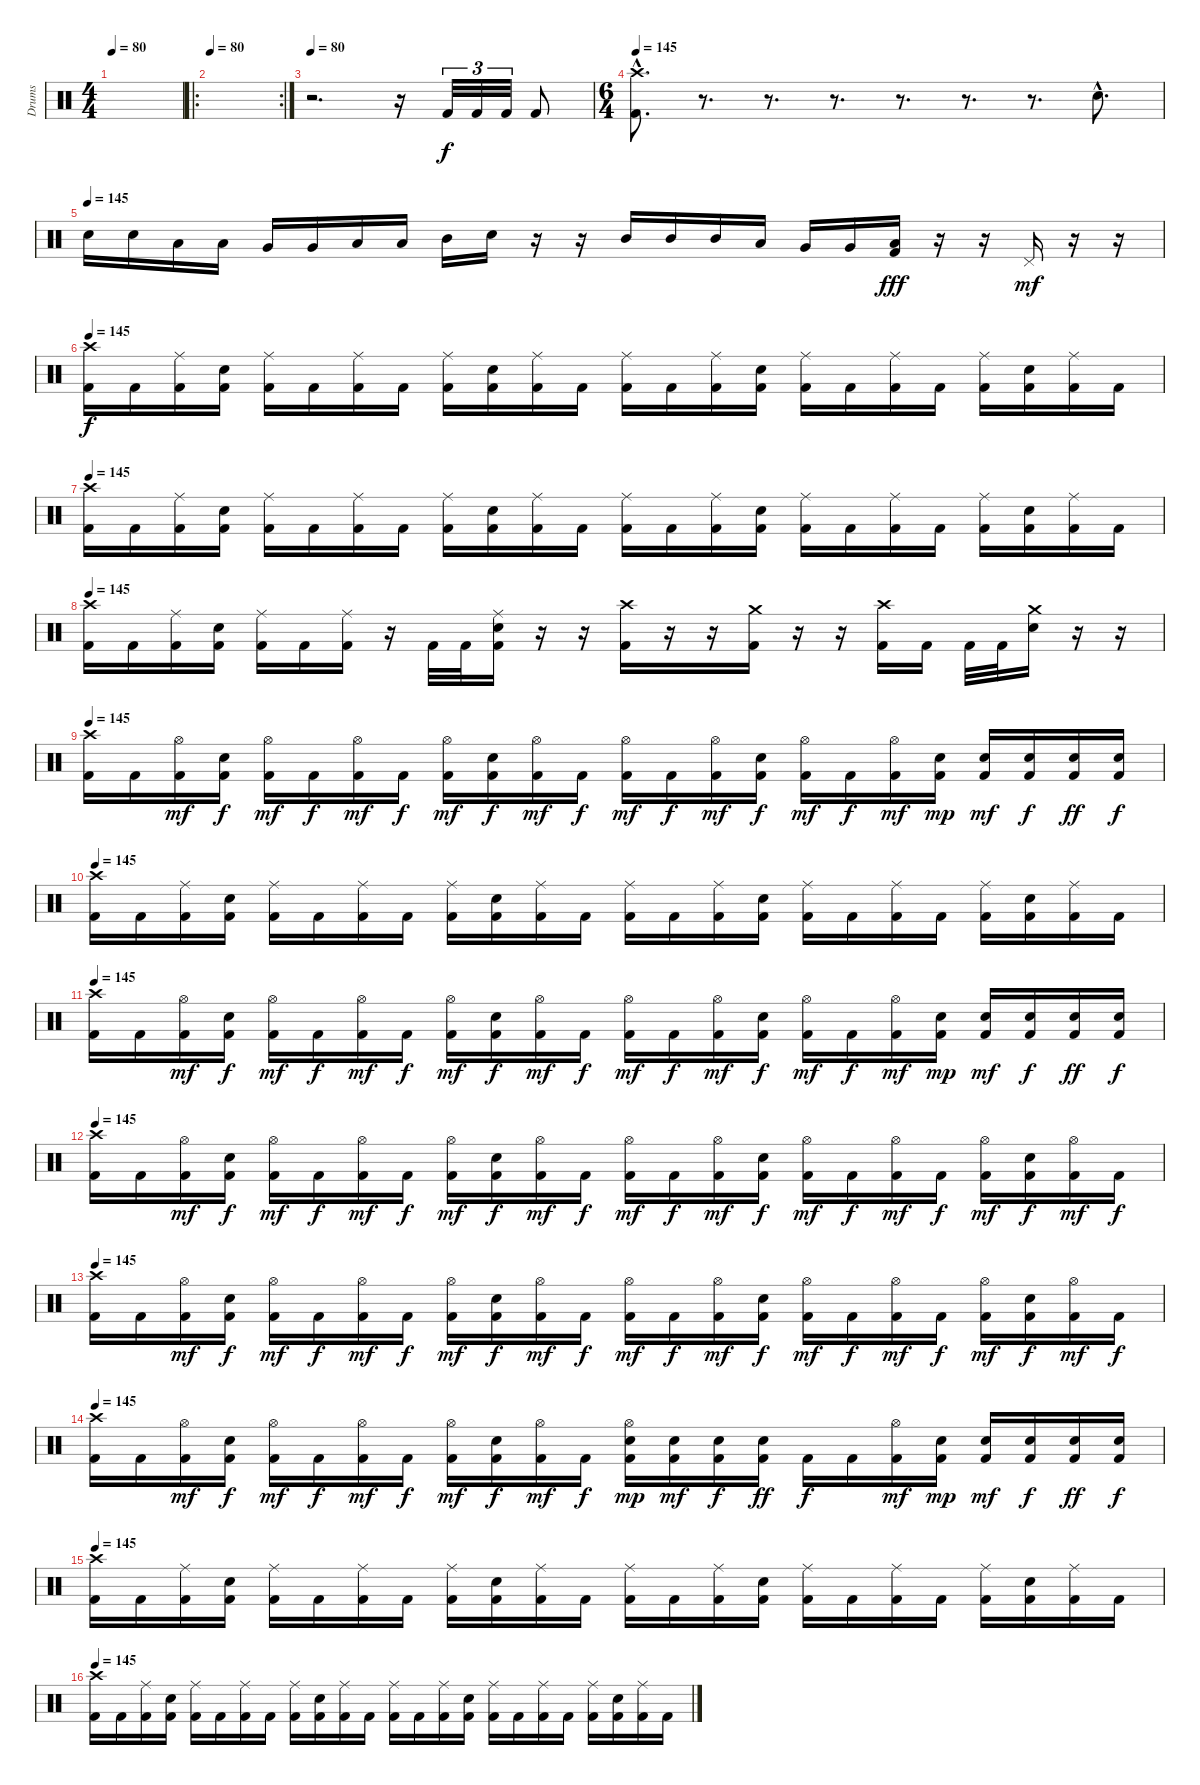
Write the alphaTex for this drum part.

\track ("Drums" "Drums") {instrument percussion}
\staff {score}
\articulation defaults
\ts (4 4)
\tempo 80
\clef neutral
\ks c
|
\ro
\rc 2
\tempo 80
|
\tempo 80
r.2{d} r.16 "Kick (hit) 2".32{tu (3 2) dy f} "Kick (hit) 2".32{tu (3 2)} "Kick (hit) 2".32{tu (3 2)} "Kick (hit) 2".8 |
\ts (6 4)
\tempo 145
("Crash high (hit)"{hac} "Kick (hit) 2"{hac}).8{d} r.8{d} r.8{d} r.8{d} r.8{d} r.8{d} r.8{d} "Electric Snare (hit)"{hac}.8{d} |
\tempo (145)
"Electric Snare (hit)".16 "Electric Snare (hit)".16 "Low Tom (hit)".16 "Low Tom (hit)".16 "Very Low Tom (hit)".16 "Very Low Tom (hit)".16 "Low Tom (hit)".16 "Low Tom (hit)".16 "Mid Tom (hit)".16 "Electric Snare (hit)".16 r.16 r.16 "Mid Tom (hit)".16 "Mid Tom (hit)".16 "Mid Tom (hit)".16 "Low Tom (hit)".16 "Very Low Tom (hit)".16 "Very Low Tom (hit)".16 ("Low Floor Tom (hit)" "Kick (hit) 2").16{dy fff} r.16 r.16 "Pedal Hi-Hat (hit)".16{dy mf} r.16 r.16 |
\tempo 145
("Crash high (hit)" "Kick (hit) 2").16{dy f} "Kick (hit) 2".16 ("Ride (middle)" "Kick (hit) 2").16 ("Electric Snare (hit)" "Kick (hit) 2").16 ("Ride (middle)" "Kick (hit) 2").16 "Kick (hit) 2".16 ("Ride (middle)" "Kick (hit) 2").16 "Kick (hit) 2".16 ("Ride (middle)" "Kick (hit) 2").16 ("Electric Snare (hit)" "Kick (hit) 2").16 ("Ride (middle)" "Kick (hit) 2").16 "Kick (hit) 2".16 ("Ride (middle)" "Kick (hit) 2").16 "Kick (hit) 2".16 ("Ride (middle)" "Kick (hit) 2").16 ("Electric Snare (hit)" "Kick (hit) 2").16 ("Ride (middle)" "Kick (hit) 2").16 "Kick (hit) 2".16 ("Ride (middle)" "Kick (hit) 2").16 "Kick (hit) 2".16 ("Ride (middle)" "Kick (hit) 2").16 ("Electric Snare (hit)" "Kick (hit) 2").16 ("Ride (middle)" "Kick (hit) 2").16 "Kick (hit) 2".16 |
\tempo 145
("Crash high (hit)" "Kick (hit) 2").16 "Kick (hit) 2".16 ("Ride (middle)" "Kick (hit) 2").16 ("Electric Snare (hit)" "Kick (hit) 2").16 ("Ride (middle)" "Kick (hit) 2").16 "Kick (hit) 2".16 ("Ride (middle)" "Kick (hit) 2").16 "Kick (hit) 2".16 ("Ride (middle)" "Kick (hit) 2").16 ("Electric Snare (hit)" "Kick (hit) 2").16 ("Ride (middle)" "Kick (hit) 2").16 "Kick (hit) 2".16 ("Ride (middle)" "Kick (hit) 2").16 "Kick (hit) 2".16 ("Ride (middle)" "Kick (hit) 2").16 ("Electric Snare (hit)" "Kick (hit) 2").16 ("Ride (middle)" "Kick (hit) 2").16 "Kick (hit) 2".16 ("Ride (middle)" "Kick (hit) 2").16 "Kick (hit) 2".16 ("Ride (middle)" "Kick (hit) 2").16 ("Electric Snare (hit)" "Kick (hit) 2").16 ("Ride (middle)" "Kick (hit) 2").16 "Kick (hit) 2".16 |
\tempo 145
("Crash high (hit)" "Kick (hit) 2").16 "Kick (hit) 2".16 ("Ride (middle)" "Kick (hit) 2").16 ("Electric Snare (hit)" "Kick (hit) 2").16 ("Ride (middle)" "Kick (hit) 2").16 "Kick (hit) 2".16 ("Ride (middle)" "Kick (hit) 2").16 r.16 "Kick (hit) 2".32 "Kick (hit) 2".32 ("Ride (middle)" "Electric Snare (hit)" "Kick (hit) 2").16 r.16 r.16 ("Crash high (hit)" "Kick (hit) 2").16 r.16 r.16 ("Crash medium (hit)" "Kick (hit) 2").16 r.16 r.16 ("Crash high (hit)" "Kick (hit) 2").16 "Kick (hit) 2".16 "Kick (hit) 2".32 "Kick (hit) 2".32 ("Crash medium (hit)" "Electric Snare (hit)").16 r.16 r.16 |
\tempo 145
("Crash high (hit)" "Kick (hit) 2").16 "Kick (hit) 2".16 ("Hi-Hat (open)" "Kick (hit) 2").16{dy mf} ("Electric Snare (hit)" "Kick (hit) 2").16{dy f} ("Hi-Hat (open)" "Kick (hit) 2").16{dy mf} "Kick (hit) 2".16{dy f} ("Hi-Hat (open)" "Kick (hit) 2").16{dy mf} "Kick (hit) 2".16{dy f} ("Hi-Hat (open)" "Kick (hit) 2").16{dy mf} ("Electric Snare (hit)" "Kick (hit) 2").16{dy f} ("Hi-Hat (open)" "Kick (hit) 2").16{dy mf} "Kick (hit) 2".16{dy f} ("Hi-Hat (open)" "Kick (hit) 2").16{dy mf} "Kick (hit) 2".16{dy f} ("Hi-Hat (open)" "Kick (hit) 2").16{dy mf} ("Electric Snare (hit)" "Kick (hit) 2").16{dy f} ("Hi-Hat (open)" "Kick (hit) 2").16{dy mf} "Kick (hit) 2".16{dy f} ("Hi-Hat (open)" "Kick (hit) 2").16{dy mf} ("Electric Snare (hit)" "Kick (hit) 2").16{dy mp} ("Electric Snare (hit)" "Kick (hit) 2").16{dy mf} ("Electric Snare (hit)" "Kick (hit) 2").16{dy f} ("Electric Snare (hit)" "Kick (hit) 2").16{dy ff} ("Electric Snare (hit)" "Kick (hit) 2").16{dy f} |
\tempo 145
("Crash high (hit)" "Kick (hit) 2").16 "Kick (hit) 2".16 ("Ride (middle)" "Kick (hit) 2").16 ("Electric Snare (hit)" "Kick (hit) 2").16 ("Ride (middle)" "Kick (hit) 2").16 "Kick (hit) 2".16 ("Ride (middle)" "Kick (hit) 2").16 "Kick (hit) 2".16 ("Ride (middle)" "Kick (hit) 2").16 ("Electric Snare (hit)" "Kick (hit) 2").16 ("Ride (middle)" "Kick (hit) 2").16 "Kick (hit) 2".16 ("Ride (middle)" "Kick (hit) 2").16 "Kick (hit) 2".16 ("Ride (middle)" "Kick (hit) 2").16 ("Electric Snare (hit)" "Kick (hit) 2").16 ("Ride (middle)" "Kick (hit) 2").16 "Kick (hit) 2".16 ("Ride (middle)" "Kick (hit) 2").16 "Kick (hit) 2".16 ("Ride (middle)" "Kick (hit) 2").16 ("Electric Snare (hit)" "Kick (hit) 2").16 ("Ride (middle)" "Kick (hit) 2").16 "Kick (hit) 2".16 |
\tempo 145
("Crash high (hit)" "Kick (hit) 2").16 "Kick (hit) 2".16 ("Hi-Hat (open)" "Kick (hit) 2").16{dy mf} ("Electric Snare (hit)" "Kick (hit) 2").16{dy f} ("Hi-Hat (open)" "Kick (hit) 2").16{dy mf} "Kick (hit) 2".16{dy f} ("Hi-Hat (open)" "Kick (hit) 2").16{dy mf} "Kick (hit) 2".16{dy f} ("Hi-Hat (open)" "Kick (hit) 2").16{dy mf} ("Electric Snare (hit)" "Kick (hit) 2").16{dy f} ("Hi-Hat (open)" "Kick (hit) 2").16{dy mf} "Kick (hit) 2".16{dy f} ("Hi-Hat (open)" "Kick (hit) 2").16{dy mf} "Kick (hit) 2".16{dy f} ("Hi-Hat (open)" "Kick (hit) 2").16{dy mf} ("Electric Snare (hit)" "Kick (hit) 2").16{dy f} ("Hi-Hat (open)" "Kick (hit) 2").16{dy mf} "Kick (hit) 2".16{dy f} ("Hi-Hat (open)" "Kick (hit) 2").16{dy mf} ("Electric Snare (hit)" "Kick (hit) 2").16{dy mp} ("Electric Snare (hit)" "Kick (hit) 2").16{dy mf} ("Electric Snare (hit)" "Kick (hit) 2").16{dy f} ("Electric Snare (hit)" "Kick (hit) 2").16{dy ff} ("Electric Snare (hit)" "Kick (hit) 2").16{dy f} |
\tempo 145
("Crash high (hit)" "Kick (hit) 2").16 "Kick (hit) 2".16 ("Hi-Hat (open)" "Kick (hit) 2").16{dy mf} ("Electric Snare (hit)" "Kick (hit) 2").16{dy f} ("Hi-Hat (open)" "Kick (hit) 2").16{dy mf} "Kick (hit) 2".16{dy f} ("Hi-Hat (open)" "Kick (hit) 2").16{dy mf} "Kick (hit) 2".16{dy f} ("Hi-Hat (open)" "Kick (hit) 2").16{dy mf} ("Electric Snare (hit)" "Kick (hit) 2").16{dy f} ("Hi-Hat (open)" "Kick (hit) 2").16{dy mf} "Kick (hit) 2".16{dy f} ("Hi-Hat (open)" "Kick (hit) 2").16{dy mf} "Kick (hit) 2".16{dy f} ("Hi-Hat (open)" "Kick (hit) 2").16{dy mf} ("Electric Snare (hit)" "Kick (hit) 2").16{dy f} ("Hi-Hat (open)" "Kick (hit) 2").16{dy mf} "Kick (hit) 2".16{dy f} ("Hi-Hat (open)" "Kick (hit) 2").16{dy mf} "Kick (hit) 2".16{dy f} ("Hi-Hat (open)" "Kick (hit) 2").16{dy mf} ("Electric Snare (hit)" "Kick (hit) 2").16{dy f} ("Hi-Hat (open)" "Kick (hit) 2").16{dy mf} "Kick (hit) 2".16{dy f} |
\tempo 145
("Crash high (hit)" "Kick (hit) 2").16 "Kick (hit) 2".16 ("Hi-Hat (open)" "Kick (hit) 2").16{dy mf} ("Electric Snare (hit)" "Kick (hit) 2").16{dy f} ("Hi-Hat (open)" "Kick (hit) 2").16{dy mf} "Kick (hit) 2".16{dy f} ("Hi-Hat (open)" "Kick (hit) 2").16{dy mf} "Kick (hit) 2".16{dy f} ("Hi-Hat (open)" "Kick (hit) 2").16{dy mf} ("Electric Snare (hit)" "Kick (hit) 2").16{dy f} ("Hi-Hat (open)" "Kick (hit) 2").16{dy mf} "Kick (hit) 2".16{dy f} ("Hi-Hat (open)" "Kick (hit) 2").16{dy mf} "Kick (hit) 2".16{dy f} ("Hi-Hat (open)" "Kick (hit) 2").16{dy mf} ("Electric Snare (hit)" "Kick (hit) 2").16{dy f} ("Hi-Hat (open)" "Kick (hit) 2").16{dy mf} "Kick (hit) 2".16{dy f} ("Hi-Hat (open)" "Kick (hit) 2").16{dy mf} "Kick (hit) 2".16{dy f} ("Hi-Hat (open)" "Kick (hit) 2").16{dy mf} ("Electric Snare (hit)" "Kick (hit) 2").16{dy f} ("Hi-Hat (open)" "Kick (hit) 2").16{dy mf} "Kick (hit) 2".16{dy f} |
\tempo 145
("Crash high (hit)" "Kick (hit) 2").16 "Kick (hit) 2".16 ("Hi-Hat (open)" "Kick (hit) 2").16{dy mf} ("Electric Snare (hit)" "Kick (hit) 2").16{dy f} ("Hi-Hat (open)" "Kick (hit) 2").16{dy mf} "Kick (hit) 2".16{dy f} ("Hi-Hat (open)" "Kick (hit) 2").16{dy mf} "Kick (hit) 2".16{dy f} ("Hi-Hat (open)" "Kick (hit) 2").16{dy mf} ("Electric Snare (hit)" "Kick (hit) 2").16{dy f} ("Hi-Hat (open)" "Kick (hit) 2").16{dy mf} "Kick (hit) 2".16{dy f} ("Hi-Hat (open)" "Electric Snare (hit)" "Kick (hit) 2").16{dy mp} ("Electric Snare (hit)" "Kick (hit) 2").16{dy mf} ("Electric Snare (hit)" "Kick (hit) 2").16{dy f} ("Electric Snare (hit)" "Kick (hit) 2").16{dy ff} "Kick (hit) 2".16{dy f} "Kick (hit) 2".16 ("Hi-Hat (open)" "Kick (hit) 2").16{dy mf} ("Electric Snare (hit)" "Kick (hit) 2").16{dy mp} ("Electric Snare (hit)" "Kick (hit) 2").16{dy mf} ("Electric Snare (hit)" "Kick (hit) 2").16{dy f} ("Electric Snare (hit)" "Kick (hit) 2").16{dy ff} ("Electric Snare (hit)" "Kick (hit) 2").16{dy f} |
\tempo 145
("Crash high (hit)" "Kick (hit) 2").16 "Kick (hit) 2".16 ("Ride (middle)" "Kick (hit) 2").16 ("Electric Snare (hit)" "Kick (hit) 2").16 ("Ride (middle)" "Kick (hit) 2").16 "Kick (hit) 2".16 ("Ride (middle)" "Kick (hit) 2").16 "Kick (hit) 2".16 ("Ride (middle)" "Kick (hit) 2").16 ("Electric Snare (hit)" "Kick (hit) 2").16 ("Ride (middle)" "Kick (hit) 2").16 "Kick (hit) 2".16 ("Ride (middle)" "Kick (hit) 2").16 "Kick (hit) 2".16 ("Ride (middle)" "Kick (hit) 2").16 ("Electric Snare (hit)" "Kick (hit) 2").16 ("Ride (middle)" "Kick (hit) 2").16 "Kick (hit) 2".16 ("Ride (middle)" "Kick (hit) 2").16 "Kick (hit) 2".16 ("Ride (middle)" "Kick (hit) 2").16 ("Electric Snare (hit)" "Kick (hit) 2").16 ("Ride (middle)" "Kick (hit) 2").16 "Kick (hit) 2".16 |
\tempo 145
("Crash high (hit)" "Kick (hit) 2").16 "Kick (hit) 2".16 ("Ride (middle)" "Kick (hit) 2").16 ("Electric Snare (hit)" "Kick (hit) 2").16 ("Ride (middle)" "Kick (hit) 2").16 "Kick (hit) 2".16 ("Ride (middle)" "Kick (hit) 2").16 "Kick (hit) 2".16 ("Ride (middle)" "Kick (hit) 2").16 ("Electric Snare (hit)" "Kick (hit) 2").16 ("Ride (middle)" "Kick (hit) 2").16 "Kick (hit) 2".16 ("Ride (middle)" "Kick (hit) 2").16 "Kick (hit) 2".16 ("Ride (middle)" "Kick (hit) 2").16 ("Electric Snare (hit)" "Kick (hit) 2").16 ("Ride (middle)" "Kick (hit) 2").16 "Kick (hit) 2".16 ("Ride (middle)" "Kick (hit) 2").16 "Kick (hit) 2".16 ("Ride (middle)" "Kick (hit) 2").16 ("Electric Snare (hit)" "Kick (hit) 2").16 ("Ride (middle)" "Kick (hit) 2").16 "Kick (hit) 2".16
